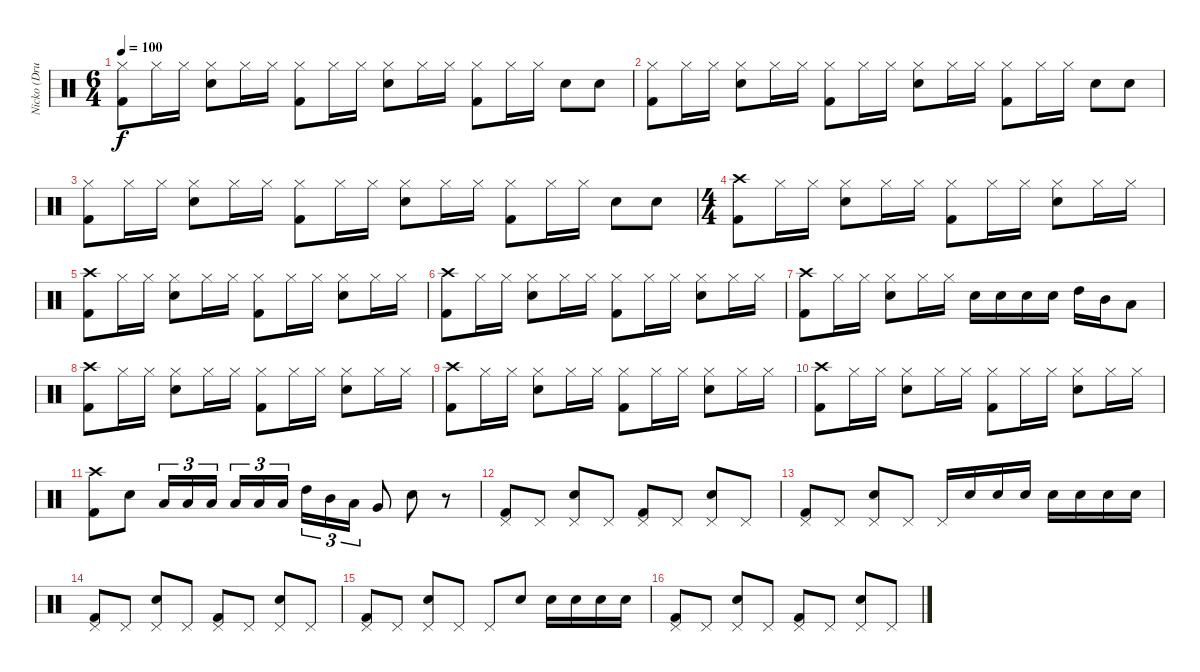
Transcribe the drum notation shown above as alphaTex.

\track ("Nicko (Drums)" "Nicko (Dru") {instrument percussion}
\staff {score}
\articulation defaults
\ts (6 4)
\tempo 100
\clef neutral
\ks c
("Hi-Hat (closed)" "Kick (hit) 2").8{dy f} "Hi-Hat (closed)".16 "Hi-Hat (closed)".16 ("Hi-Hat (closed)" "Snare (hit) 2").8 "Hi-Hat (closed)".16 "Hi-Hat (closed)".16 ("Hi-Hat (closed)" "Kick (hit) 2").8 "Hi-Hat (closed)".16 "Hi-Hat (closed)".16 ("Hi-Hat (closed)" "Snare (hit) 2").8 "Hi-Hat (closed)".16 "Hi-Hat (closed)".16 ("Hi-Hat (closed)" "Kick (hit) 2").8 "Hi-Hat (closed)".16 "Hi-Hat (closed)".16 "Snare (hit) 2".8 "Snare (hit) 2".8 |
("Hi-Hat (closed)" "Kick (hit) 2").8 "Hi-Hat (closed)".16 "Hi-Hat (closed)".16 ("Hi-Hat (closed)" "Snare (hit) 2").8 "Hi-Hat (closed)".16 "Hi-Hat (closed)".16 ("Hi-Hat (closed)" "Kick (hit) 2").8 "Hi-Hat (closed)".16 "Hi-Hat (closed)".16 ("Hi-Hat (closed)" "Snare (hit) 2").8 "Hi-Hat (closed)".16 "Hi-Hat (closed)".16 ("Hi-Hat (closed)" "Kick (hit) 2").8 "Hi-Hat (closed)".16 "Hi-Hat (closed)".16 "Snare (hit) 2".8 "Snare (hit) 2".8 |
("Hi-Hat (closed)" "Kick (hit) 2").8 "Hi-Hat (closed)".16 "Hi-Hat (closed)".16 ("Hi-Hat (closed)" "Snare (hit) 2").8 "Hi-Hat (closed)".16 "Hi-Hat (closed)".16 ("Hi-Hat (closed)" "Kick (hit) 2").8 "Hi-Hat (closed)".16 "Hi-Hat (closed)".16 ("Hi-Hat (closed)" "Snare (hit) 2").8 "Hi-Hat (closed)".16 "Hi-Hat (closed)".16 ("Hi-Hat (closed)" "Kick (hit) 2").8 "Hi-Hat (closed)".16 "Hi-Hat (closed)".16 "Snare (hit) 2".8 "Snare (hit) 2".8 |
\ts (4 4)
("Crash high (hit)" "Kick (hit) 2").8 "Hi-Hat (closed)".16 "Hi-Hat (closed)".16 ("Hi-Hat (closed)" "Snare (hit) 2").8 "Hi-Hat (closed)".16 "Hi-Hat (closed)".16 ("Hi-Hat (closed)" "Kick (hit) 2").8 "Hi-Hat (closed)".16 "Hi-Hat (closed)".16 ("Hi-Hat (closed)" "Snare (hit) 2").8 "Hi-Hat (closed)".16 "Hi-Hat (closed)".16 |
("Crash high (hit)" "Kick (hit) 2").8 "Hi-Hat (closed)".16 "Hi-Hat (closed)".16 ("Hi-Hat (closed)" "Snare (hit) 2").8 "Hi-Hat (closed)".16 "Hi-Hat (closed)".16 ("Hi-Hat (closed)" "Kick (hit) 2").8 "Hi-Hat (closed)".16 "Hi-Hat (closed)".16 ("Hi-Hat (closed)" "Snare (hit) 2").8 "Hi-Hat (closed)".16 "Hi-Hat (closed)".16 |
("Crash high (hit)" "Kick (hit) 2").8 "Hi-Hat (closed)".16 "Hi-Hat (closed)".16 ("Hi-Hat (closed)" "Snare (hit) 2").8 "Hi-Hat (closed)".16 "Hi-Hat (closed)".16 ("Hi-Hat (closed)" "Kick (hit) 2").8 "Hi-Hat (closed)".16 "Hi-Hat (closed)".16 ("Hi-Hat (closed)" "Snare (hit) 2").8 "Hi-Hat (closed)".16 "Hi-Hat (closed)".16 |
("Crash high (hit)" "Kick (hit) 2").8 "Hi-Hat (closed)".16 "Hi-Hat (closed)".16 ("Hi-Hat (closed)" "Snare (hit) 2").8 "Hi-Hat (closed)".16 "Hi-Hat (closed)".16 "Snare (hit) 2".16 "Snare (hit) 2".16 "Snare (hit) 2".16 "Snare (hit) 2".16 "High Tom (hit)".16 "Mid Tom (hit)".16 "Low Tom (hit)".8 |
("Crash high (hit)" "Kick (hit) 2").8 "Hi-Hat (closed)".16 "Hi-Hat (closed)".16 ("Hi-Hat (closed)" "Snare (hit) 2").8 "Hi-Hat (closed)".16 "Hi-Hat (closed)".16 ("Hi-Hat (closed)" "Kick (hit) 2").8 "Hi-Hat (closed)".16 "Hi-Hat (closed)".16 ("Hi-Hat (closed)" "Snare (hit) 2").8 "Hi-Hat (closed)".16 "Hi-Hat (closed)".16 |
("Crash high (hit)" "Kick (hit) 2").8 "Hi-Hat (closed)".16 "Hi-Hat (closed)".16 ("Hi-Hat (closed)" "Snare (hit) 2").8 "Hi-Hat (closed)".16 "Hi-Hat (closed)".16 ("Hi-Hat (closed)" "Kick (hit) 2").8 "Hi-Hat (closed)".16 "Hi-Hat (closed)".16 ("Hi-Hat (closed)" "Snare (hit) 2").8 "Hi-Hat (closed)".16 "Hi-Hat (closed)".16 |
("Crash high (hit)" "Kick (hit) 2").8 "Hi-Hat (closed)".16 "Hi-Hat (closed)".16 ("Hi-Hat (closed)" "Snare (hit) 2").8 "Hi-Hat (closed)".16 "Hi-Hat (closed)".16 ("Hi-Hat (closed)" "Kick (hit) 2").8 "Hi-Hat (closed)".16 "Hi-Hat (closed)".16 ("Hi-Hat (closed)" "Snare (hit) 2").8 "Hi-Hat (closed)".16 "Hi-Hat (closed)".16 |
("Crash high (hit)" "Kick (hit) 2").8 "Snare (hit) 2".8 "Low Tom (hit)".16{tu (3 2)} "Low Tom (hit)".16{tu (3 2)} "Low Tom (hit)".16{tu (3 2)} "Low Tom (hit)".16{tu (3 2)} "Low Tom (hit)".16{tu (3 2)} "Low Tom (hit)".16{tu (3 2)} "High Tom (hit)".16{tu (3 2)} "Mid Tom (hit)".16{tu (3 2)} "Low Tom (hit)".16{tu (3 2)} "Very Low Tom (hit)".8 "Snare (hit) 2".8 r.8 |
("Pedal Hi-Hat (hit)" "Kick (hit) 2").8 "Pedal Hi-Hat (hit)".8 ("Pedal Hi-Hat (hit)" "Snare (hit) 2").8 "Pedal Hi-Hat (hit)".8 ("Pedal Hi-Hat (hit)" "Kick (hit) 2").8 "Pedal Hi-Hat (hit)".8 ("Pedal Hi-Hat (hit)" "Snare (hit) 2").8 "Pedal Hi-Hat (hit)".8 |
("Pedal Hi-Hat (hit)" "Kick (hit) 2").8 "Pedal Hi-Hat (hit)".8 ("Pedal Hi-Hat (hit)" "Snare (hit) 2").8 "Pedal Hi-Hat (hit)".8 "Pedal Hi-Hat (hit)".16 "Snare (hit) 2".16 "Snare (hit) 2".16 "Snare (hit) 2".16 "Snare (hit) 2".16 "Snare (hit) 2".16 "Snare (hit) 2".16 "Snare (hit) 2".16 |
("Pedal Hi-Hat (hit)" "Kick (hit) 2").8 "Pedal Hi-Hat (hit)".8 ("Pedal Hi-Hat (hit)" "Snare (hit) 2").8 "Pedal Hi-Hat (hit)".8 ("Pedal Hi-Hat (hit)" "Kick (hit) 2").8 "Pedal Hi-Hat (hit)".8 ("Pedal Hi-Hat (hit)" "Snare (hit) 2").8 "Pedal Hi-Hat (hit)".8 |
("Pedal Hi-Hat (hit)" "Kick (hit) 2").8 "Pedal Hi-Hat (hit)".8 ("Pedal Hi-Hat (hit)" "Snare (hit) 2").8 "Pedal Hi-Hat (hit)".8 "Pedal Hi-Hat (hit)".8 "Snare (hit) 2".8 "Snare (hit) 2".16 "Snare (hit) 2".16 "Snare (hit) 2".16 "Snare (hit) 2".16 |
("Pedal Hi-Hat (hit)" "Kick (hit) 2").8 "Pedal Hi-Hat (hit)".8 ("Pedal Hi-Hat (hit)" "Snare (hit) 2").8 "Pedal Hi-Hat (hit)".8 ("Pedal Hi-Hat (hit)" "Kick (hit) 2").8 "Pedal Hi-Hat (hit)".8 ("Pedal Hi-Hat (hit)" "Snare (hit) 2").8 "Pedal Hi-Hat (hit)".8
